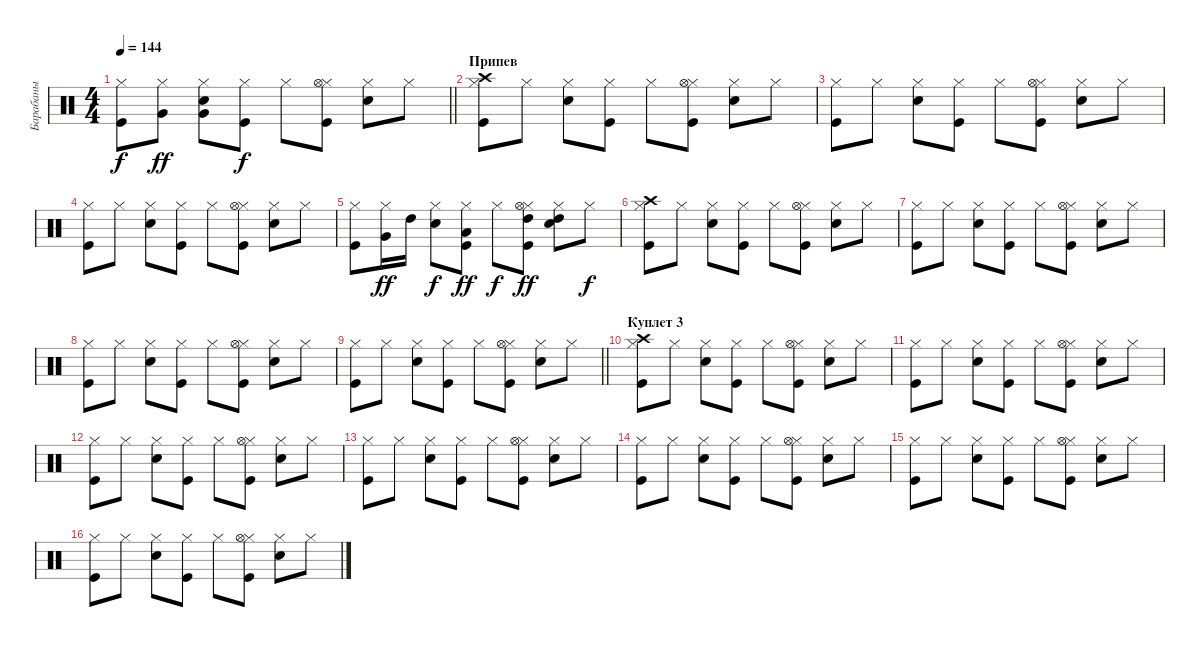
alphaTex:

\track ("Барабаны" "Барабаны") {instrument percussion}
\staff {score}
\articulation defaults
\ts (4 4)
\tempo 144
\clef neutral
\barLineRight lightlight
\ks c
("Kick (hit)" "Hi-Hat (closed)").8{dy f} ("Hi-Hat (closed)" "Very Low Tom (hit)").8{dy ff} ("Snare (hit) 2" "Hi-Hat (closed)" "Very Low Tom (hit)").8 ("Kick (hit)" "Hi-Hat (closed)").8{dy f} "Hi-Hat (closed)".8 ("Kick (hit)" "Hi-Hat (closed)" "Hi-Hat (open)").8 ("Snare (hit) 2" "Hi-Hat (closed)").8 "Hi-Hat (closed)".8 |
\section ("" "Припев")
("Kick (hit)" "Hi-Hat (closed)" "Crash high (hit)").8 "Hi-Hat (closed)".8 ("Snare (hit) 2" "Hi-Hat (closed)").8 ("Kick (hit)" "Hi-Hat (closed)").8 "Hi-Hat (closed)".8 ("Kick (hit)" "Hi-Hat (closed)" "Hi-Hat (open)").8 ("Snare (hit) 2" "Hi-Hat (closed)").8 "Hi-Hat (closed)".8 |
("Kick (hit)" "Hi-Hat (closed)").8 "Hi-Hat (closed)".8 ("Snare (hit) 2" "Hi-Hat (closed)").8 ("Kick (hit)" "Hi-Hat (closed)").8 "Hi-Hat (closed)".8 ("Kick (hit)" "Hi-Hat (closed)" "Hi-Hat (open)").8 ("Snare (hit) 2" "Hi-Hat (closed)").8 "Hi-Hat (closed)".8 |
("Kick (hit)" "Hi-Hat (closed)").8 "Hi-Hat (closed)".8 ("Snare (hit) 2" "Hi-Hat (closed)").8 ("Kick (hit)" "Hi-Hat (closed)").8 "Hi-Hat (closed)".8 ("Kick (hit)" "Hi-Hat (closed)" "Hi-Hat (open)").8 ("Snare (hit) 2" "Hi-Hat (closed)").8 "Hi-Hat (closed)".8 |
("Kick (hit)" "Hi-Hat (closed)").8 ("Hi-Hat (closed)" "Very Low Tom (hit)").16{dy ff} "High Tom (hit)".16 ("Snare (hit) 2" "Hi-Hat (closed)").8{dy f} ("Kick (hit)" "Hi-Hat (closed)" "Low Tom (hit)").8{dy ff} "Hi-Hat (closed)".8{dy f} ("Kick (hit)" "Hi-Hat (closed)" "High Tom (hit)" "Hi-Hat (open)").8{dy ff} ("Snare (hit) 2" "Hi-Hat (closed)" "High Tom (hit)").8 "Hi-Hat (closed)".8{dy f} |
("Kick (hit)" "Hi-Hat (closed)" "Crash high (hit)").8 "Hi-Hat (closed)".8 ("Snare (hit) 2" "Hi-Hat (closed)").8 ("Kick (hit)" "Hi-Hat (closed)").8 "Hi-Hat (closed)".8 ("Kick (hit)" "Hi-Hat (closed)" "Hi-Hat (open)").8 ("Snare (hit) 2" "Hi-Hat (closed)").8 "Hi-Hat (closed)".8 |
("Kick (hit)" "Hi-Hat (closed)").8 "Hi-Hat (closed)".8 ("Snare (hit) 2" "Hi-Hat (closed)").8 ("Kick (hit)" "Hi-Hat (closed)").8 "Hi-Hat (closed)".8 ("Kick (hit)" "Hi-Hat (closed)" "Hi-Hat (open)").8 ("Snare (hit) 2" "Hi-Hat (closed)").8 "Hi-Hat (closed)".8 |
("Kick (hit)" "Hi-Hat (closed)").8 "Hi-Hat (closed)".8 ("Snare (hit) 2" "Hi-Hat (closed)").8 ("Kick (hit)" "Hi-Hat (closed)").8 "Hi-Hat (closed)".8 ("Kick (hit)" "Hi-Hat (closed)" "Hi-Hat (open)").8 ("Snare (hit) 2" "Hi-Hat (closed)").8 "Hi-Hat (closed)".8 |
\barLineRight lightlight
("Kick (hit)" "Hi-Hat (closed)").8 "Hi-Hat (closed)".8 ("Snare (hit) 2" "Hi-Hat (closed)").8 ("Kick (hit)" "Hi-Hat (closed)").8 "Hi-Hat (closed)".8 ("Kick (hit)" "Hi-Hat (closed)" "Hi-Hat (open)").8 ("Snare (hit) 2" "Hi-Hat (closed)").8 "Hi-Hat (closed)".8 |
\section ("" "Куплет 3")
("Kick (hit)" "Hi-Hat (closed)" "Crash high (hit)").8 "Hi-Hat (closed)".8 ("Snare (hit) 2" "Hi-Hat (closed)").8 ("Kick (hit)" "Hi-Hat (closed)").8 "Hi-Hat (closed)".8 ("Kick (hit)" "Hi-Hat (closed)" "Hi-Hat (open)").8 ("Snare (hit) 2" "Hi-Hat (closed)").8 "Hi-Hat (closed)".8 |
("Kick (hit)" "Hi-Hat (closed)").8 "Hi-Hat (closed)".8 ("Snare (hit) 2" "Hi-Hat (closed)").8 ("Kick (hit)" "Hi-Hat (closed)").8 "Hi-Hat (closed)".8 ("Kick (hit)" "Hi-Hat (closed)" "Hi-Hat (open)").8 ("Snare (hit) 2" "Hi-Hat (closed)").8 "Hi-Hat (closed)".8 |
("Kick (hit)" "Hi-Hat (closed)").8 "Hi-Hat (closed)".8 ("Snare (hit) 2" "Hi-Hat (closed)").8 ("Kick (hit)" "Hi-Hat (closed)").8 "Hi-Hat (closed)".8 ("Kick (hit)" "Hi-Hat (closed)" "Hi-Hat (open)").8 ("Snare (hit) 2" "Hi-Hat (closed)").8 "Hi-Hat (closed)".8 |
("Kick (hit)" "Hi-Hat (closed)").8 "Hi-Hat (closed)".8 ("Snare (hit) 2" "Hi-Hat (closed)").8 ("Kick (hit)" "Hi-Hat (closed)").8 "Hi-Hat (closed)".8 ("Kick (hit)" "Hi-Hat (closed)" "Hi-Hat (open)").8 ("Snare (hit) 2" "Hi-Hat (closed)").8 "Hi-Hat (closed)".8 |
("Kick (hit)" "Hi-Hat (closed)").8 "Hi-Hat (closed)".8 ("Snare (hit) 2" "Hi-Hat (closed)").8 ("Kick (hit)" "Hi-Hat (closed)").8 "Hi-Hat (closed)".8 ("Kick (hit)" "Hi-Hat (closed)" "Hi-Hat (open)").8 ("Snare (hit) 2" "Hi-Hat (closed)").8 "Hi-Hat (closed)".8 |
("Kick (hit)" "Hi-Hat (closed)").8 "Hi-Hat (closed)".8 ("Snare (hit) 2" "Hi-Hat (closed)").8 ("Kick (hit)" "Hi-Hat (closed)").8 "Hi-Hat (closed)".8 ("Kick (hit)" "Hi-Hat (closed)" "Hi-Hat (open)").8 ("Snare (hit) 2" "Hi-Hat (closed)").8 "Hi-Hat (closed)".8 |
("Kick (hit)" "Hi-Hat (closed)").8 "Hi-Hat (closed)".8 ("Snare (hit) 2" "Hi-Hat (closed)").8 ("Kick (hit)" "Hi-Hat (closed)").8 "Hi-Hat (closed)".8 ("Kick (hit)" "Hi-Hat (closed)" "Hi-Hat (open)").8 ("Snare (hit) 2" "Hi-Hat (closed)").8 "Hi-Hat (closed)".8
